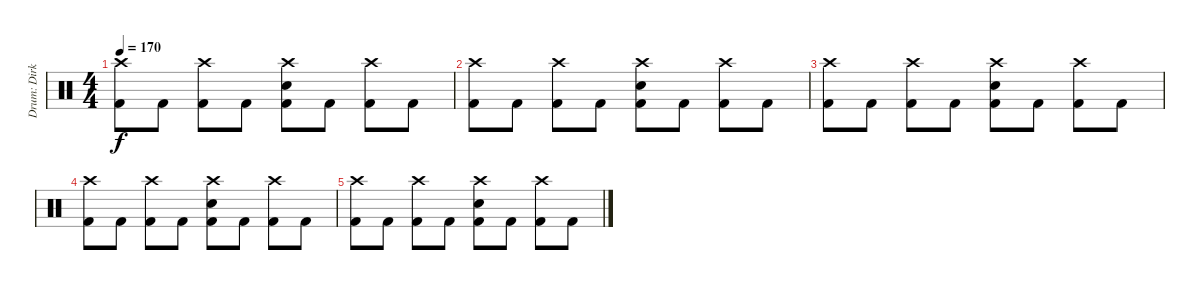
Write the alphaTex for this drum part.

\track ("Drum: Dirk" "Drum: Dirk") {instrument percussion}
\staff {score}
\articulation defaults
\ts (4 4)
\tempo 170
\clef neutral
\ks c
("Crash high (hit)" "Kick (hit) 2").8{dy f} "Kick (hit) 2".8 ("Crash high (hit)" "Kick (hit) 2").8 "Kick (hit) 2".8 ("Crash high (hit)" "Electric Snare (hit)" "Kick (hit) 2").8 "Kick (hit) 2".8 ("Crash high (hit)" "Kick (hit) 2").8 "Kick (hit) 2".8 |
("Crash high (hit)" "Kick (hit) 2").8 "Kick (hit) 2".8 ("Crash high (hit)" "Kick (hit) 2").8 "Kick (hit) 2".8 ("Crash high (hit)" "Electric Snare (hit)" "Kick (hit) 2").8 "Kick (hit) 2".8 ("Crash high (hit)" "Kick (hit) 2").8 "Kick (hit) 2".8 |
("Crash high (hit)" "Kick (hit) 2").8 "Kick (hit) 2".8 ("Crash high (hit)" "Kick (hit) 2").8 "Kick (hit) 2".8 ("Crash high (hit)" "Electric Snare (hit)" "Kick (hit) 2").8 "Kick (hit) 2".8 ("Crash high (hit)" "Kick (hit) 2").8 "Kick (hit) 2".8 |
("Crash high (hit)" "Kick (hit) 2").8 "Kick (hit) 2".8 ("Crash high (hit)" "Kick (hit) 2").8 "Kick (hit) 2".8 ("Crash high (hit)" "Electric Snare (hit)" "Kick (hit) 2").8 "Kick (hit) 2".8 ("Crash high (hit)" "Kick (hit) 2").8 "Kick (hit) 2".8 |
("Crash high (hit)" "Kick (hit) 2").8 "Kick (hit) 2".8 ("Crash high (hit)" "Kick (hit) 2").8 "Kick (hit) 2".8 ("Crash high (hit)" "Electric Snare (hit)" "Kick (hit) 2").8 "Kick (hit) 2".8 ("Crash high (hit)" "Kick (hit) 2").8 "Kick (hit) 2".8
